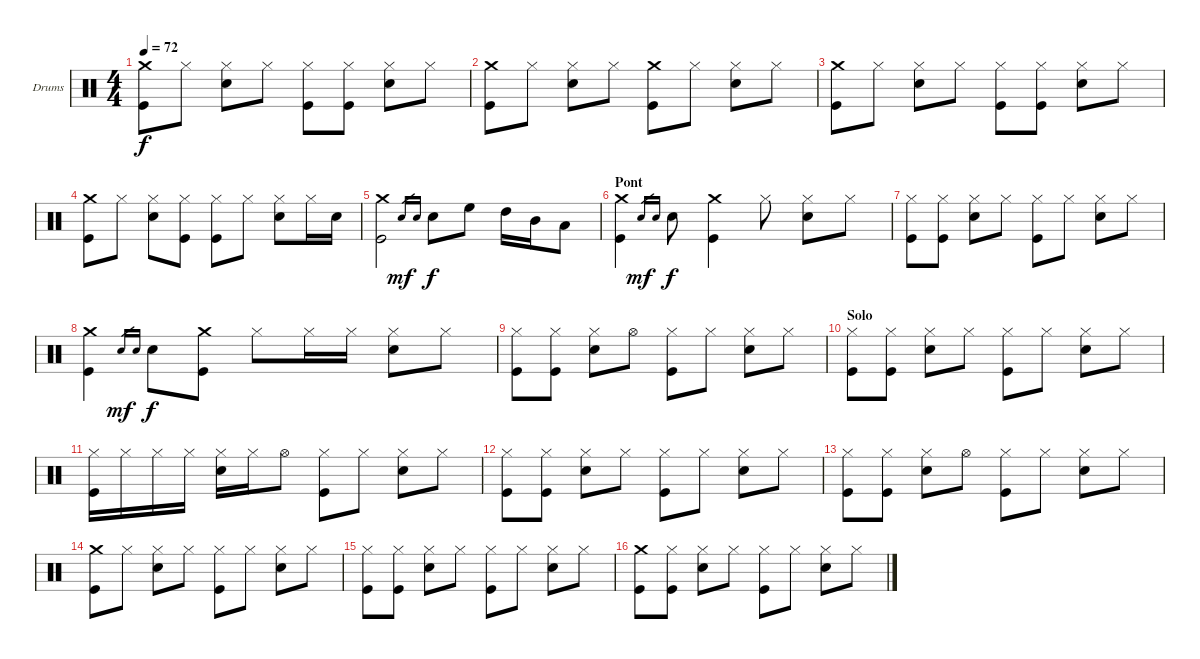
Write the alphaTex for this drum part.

\bracketExtendMode groupsimilarinstruments
\firstSystemTrackNameOrientation horizontal
\otherSystemsTrackNameOrientation horizontal
\track ("Roger Taylor" "Drums") {multiBarRest instrument percussion}
\staff {score}
\articulation defaults
\ts (4 4)
\tempo 72
\clef neutral
\ks c
("Crash medium (hit)" "Kick (hit)").8{dy f} "Hi-Hat (closed)".8 ("Hi-Hat (closed)" "Snare (hit) 2").8 "Hi-Hat (closed)".8 ("Hi-Hat (closed)" "Kick (hit)").8 ("Hi-Hat (closed)" "Kick (hit)").8 ("Hi-Hat (closed)" "Snare (hit) 2").8 "Hi-Hat (closed)".8 |
("Crash medium (hit)" "Kick (hit)").8 "Hi-Hat (closed)".8 ("Hi-Hat (closed)" "Snare (hit) 2").8 "Hi-Hat (closed)".8 ("Crash medium (hit)" "Kick (hit)").8 "Hi-Hat (closed)".8 ("Hi-Hat (closed)" "Snare (hit) 2").8 "Hi-Hat (closed)".8 |
("Crash medium (hit)" "Kick (hit)").8 "Hi-Hat (closed)".8 ("Hi-Hat (closed)" "Snare (hit) 2").8 "Hi-Hat (closed)".8 ("Hi-Hat (closed)" "Kick (hit)").8 ("Hi-Hat (closed)" "Kick (hit)").8 ("Hi-Hat (closed)" "Snare (hit) 2").8 "Hi-Hat (closed)".8 |
("Crash medium (hit)" "Kick (hit)").8 "Hi-Hat (closed)".8 ("Hi-Hat (closed)" "Snare (hit) 2").8 ("Hi-Hat (closed)" "Kick (hit)").8 ("Hi-Hat (closed)" "Kick (hit)").8 "Hi-Hat (closed)".8 ("Hi-Hat (closed)" "Snare (hit) 2").8 "Hi-Hat (closed)".16 "Snare (hit) 2".16 |
("Crash medium (hit)" "Kick (hit)").2 "Snare (hit) 2".16{gr dy mf} "Snare (hit) 2".16{gr} "Snare (hit) 2".8{dy f} "High Floor Tom (hit)".8 "High Tom (hit)".16 "Mid Tom (hit)".16 "Low Tom (hit)".8 |
\section ("" "Pont")
("Crash medium (hit)" "Kick (hit)").4 "Snare (hit) 2".16{gr dy mf} "Snare (hit) 2".16{gr} "Snare (hit) 2".8{dy f} ("Crash medium (hit)" "Kick (hit)").4 "Hi-Hat (closed)".8 ("Hi-Hat (closed)" "Snare (hit) 2").8 "Hi-Hat (closed)".8 |
("Hi-Hat (closed)" "Kick (hit)").8 ("Hi-Hat (closed)" "Kick (hit)").8 ("Hi-Hat (closed)" "Snare (hit) 2").8 "Hi-Hat (closed)".8 ("Hi-Hat (closed)" "Kick (hit)").8 "Hi-Hat (closed)".8 ("Hi-Hat (closed)" "Snare (hit) 2").8 "Hi-Hat (closed)".8 |
("Crash medium (hit)" "Kick (hit)").4 "Snare (hit) 2".16{gr dy mf} "Snare (hit) 2".16{gr} "Snare (hit) 2".8{dy f} ("Crash medium (hit)" "Kick (hit)").8 "Hi-Hat (closed)".8 "Hi-Hat (closed)".16 "Hi-Hat (closed)".16 ("Hi-Hat (closed)" "Snare (hit) 2").8 "Hi-Hat (closed)".8 |
("Hi-Hat (closed)" "Kick (hit)").8 ("Hi-Hat (closed)" "Kick (hit)").8 ("Hi-Hat (closed)" "Snare (hit) 2").8 "Hi-Hat (open)".8 ("Hi-Hat (closed)" "Kick (hit)").8 "Hi-Hat (closed)".8 ("Hi-Hat (closed)" "Snare (hit) 2").8 "Hi-Hat (closed)".8 |
\section ("" "Solo")
("Hi-Hat (closed)" "Kick (hit)").8 ("Hi-Hat (closed)" "Kick (hit)").8 ("Hi-Hat (closed)" "Snare (hit) 2").8 "Hi-Hat (closed)".8 ("Hi-Hat (closed)" "Kick (hit)").8 "Hi-Hat (closed)".8 ("Hi-Hat (closed)" "Snare (hit) 2").8 "Hi-Hat (closed)".8 |
("Hi-Hat (closed)" "Kick (hit)").16 "Hi-Hat (closed)".16 "Hi-Hat (closed)".16 "Hi-Hat (closed)".16 ("Hi-Hat (closed)" "Snare (hit) 2").16 "Hi-Hat (closed)".16 "Hi-Hat (open)".8 ("Hi-Hat (closed)" "Kick (hit)").8 "Hi-Hat (closed)".8 ("Hi-Hat (closed)" "Snare (hit) 2").8 "Hi-Hat (closed)".8 |
("Hi-Hat (closed)" "Kick (hit)").8 ("Hi-Hat (closed)" "Kick (hit)").8 ("Hi-Hat (closed)" "Snare (hit) 2").8 "Hi-Hat (closed)".8 ("Hi-Hat (closed)" "Kick (hit)").8 "Hi-Hat (closed)".8 ("Hi-Hat (closed)" "Snare (hit) 2").8 "Hi-Hat (closed)".8 |
("Hi-Hat (closed)" "Kick (hit)").8 ("Hi-Hat (closed)" "Kick (hit)").8 ("Hi-Hat (closed)" "Snare (hit) 2").8 "Hi-Hat (open)".8 ("Hi-Hat (closed)" "Kick (hit)").8 "Hi-Hat (closed)".8 ("Hi-Hat (closed)" "Snare (hit) 2").8 "Hi-Hat (closed)".8 |
("Crash medium (hit)" "Kick (hit)").8 "Hi-Hat (closed)".8 ("Hi-Hat (closed)" "Snare (hit) 2").8 "Hi-Hat (closed)".8 ("Hi-Hat (closed)" "Kick (hit)").8 "Hi-Hat (closed)".8 ("Hi-Hat (closed)" "Snare (hit) 2").8 "Hi-Hat (closed)".8 |
("Hi-Hat (closed)" "Kick (hit)").8 ("Hi-Hat (closed)" "Kick (hit)").8 ("Hi-Hat (closed)" "Snare (hit) 2").8 "Hi-Hat (closed)".8 ("Hi-Hat (closed)" "Kick (hit)").8 "Hi-Hat (closed)".8 ("Hi-Hat (closed)" "Snare (hit) 2").8 "Hi-Hat (closed)".8 |
("Crash medium (hit)" "Kick (hit)").8 ("Hi-Hat (closed)" "Kick (hit)").8 ("Hi-Hat (closed)" "Snare (hit) 2").8 "Hi-Hat (closed)".8 ("Hi-Hat (closed)" "Kick (hit)").8 "Hi-Hat (closed)".8 ("Hi-Hat (closed)" "Snare (hit) 2").8 "Hi-Hat (closed)".8
